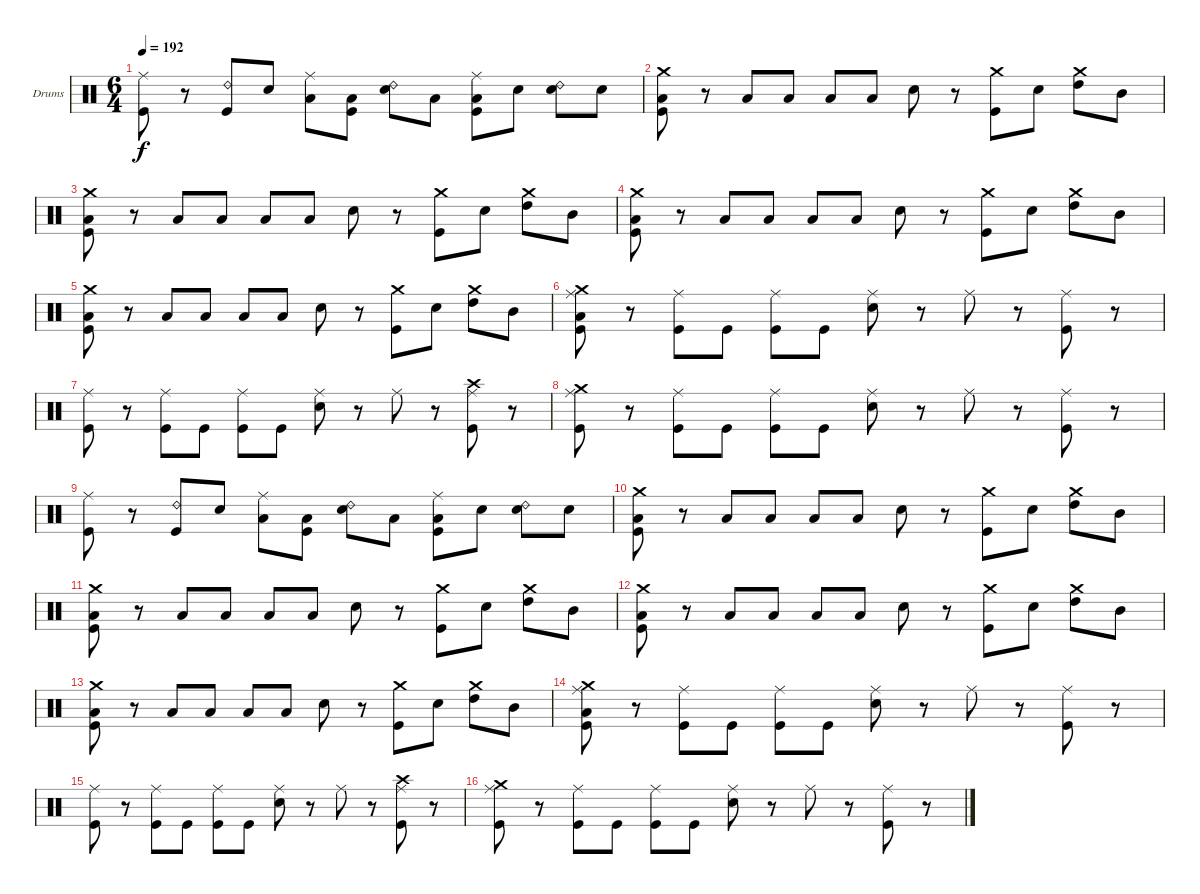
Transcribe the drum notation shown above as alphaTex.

\bracketExtendMode groupsimilarinstruments
\firstSystemTrackNameOrientation horizontal
\otherSystemsTrackNameOrientation horizontal
\track ("Drumkit" "Drums") {instrument percussion}
\staff {score}
\articulation defaults
\ts (6 4)
\tempo 192
\clef neutral
\ks c
("Ride (middle)" "Kick (hit)").8{dy f} r.8 ("Ride (bell) 2" "Kick (hit)").8 "Snare (hit) 2".8 ("Ride (middle)" "Low Tom (hit)").8 ("Low Tom (hit)" "Kick (hit)").8 ("Ride (bell) 2" "Snare (hit) 2").8 "Low Tom (hit)".8 ("Ride (middle)" "Low Tom (hit)" "Kick (hit)").8 "Snare (hit) 2".8 ("Ride (bell) 2" "Snare (hit) 2").8 "Snare (hit) 2".8 |
("Crash medium (hit)" "Low Tom (hit)" "Kick (hit)").8 r.8 "Low Tom (hit)".8 "Low Tom (hit)".8 "Low Tom (hit)".8 "Low Tom (hit)".8 "Snare (hit) 2".8 r.8 ("Crash medium (hit)" "Kick (hit)").8 "Snare (hit) 2".8 ("Crash medium (hit)" "High Tom (hit)").8 "Mid Tom (hit)".8 |
("Crash medium (hit)" "Low Tom (hit)" "Kick (hit)").8 r.8 "Low Tom (hit)".8 "Low Tom (hit)".8 "Low Tom (hit)".8 "Low Tom (hit)".8 "Snare (hit) 2".8 r.8 ("Crash medium (hit)" "Kick (hit)").8 "Snare (hit) 2".8 ("Crash medium (hit)" "High Tom (hit)").8 "Mid Tom (hit)".8 |
("Crash medium (hit)" "Low Tom (hit)" "Kick (hit)").8 r.8 "Low Tom (hit)".8 "Low Tom (hit)".8 "Low Tom (hit)".8 "Low Tom (hit)".8 "Snare (hit) 2".8 r.8 ("Crash medium (hit)" "Kick (hit)").8 "Snare (hit) 2".8 ("Crash medium (hit)" "High Tom (hit)").8 "Mid Tom (hit)".8 |
("Crash medium (hit)" "Low Tom (hit)" "Kick (hit)").8 r.8 "Low Tom (hit)".8 "Low Tom (hit)".8 "Low Tom (hit)".8 "Low Tom (hit)".8 "Snare (hit) 2".8 r.8 ("Crash medium (hit)" "Kick (hit)").8 "Snare (hit) 2".8 ("Crash medium (hit)" "High Tom (hit)").8 "Mid Tom (hit)".8 |
("Crash medium (hit)" "Ride (middle)" "Low Tom (hit)" "Kick (hit)").8 r.8 ("Ride (middle)" "Kick (hit)").8 "Kick (hit)".8 ("Ride (middle)" "Kick (hit)").8 "Kick (hit)".8 ("Ride (middle)" "Snare (hit) 2").8 r.8 "Ride (middle)".8 r.8 ("Ride (middle)" "Kick (hit)").8 r.8 |
("Ride (middle)" "Kick (hit)").8 r.8 ("Ride (middle)" "Kick (hit)").8 "Kick (hit)".8 ("Ride (middle)" "Kick (hit)").8 "Kick (hit)".8 ("Ride (middle)" "Snare (hit) 2").8 r.8 "Ride (middle)".8 r.8 ("Crash high (hit)" "Ride (middle)" "Kick (hit)").8 r.8 |
("Crash medium (hit)" "Ride (middle)" "Kick (hit)").8 r.8 ("Ride (middle)" "Kick (hit)").8 "Kick (hit)".8 ("Ride (middle)" "Kick (hit)").8 "Kick (hit)".8 ("Ride (middle)" "Snare (hit) 2").8 r.8 "Ride (middle)".8 r.8 ("Ride (middle)" "Kick (hit)").8 r.8 |
("Ride (middle)" "Kick (hit)").8 r.8 ("Ride (bell) 2" "Kick (hit)").8 "Snare (hit) 2".8 ("Ride (middle)" "Low Tom (hit)").8 ("Low Tom (hit)" "Kick (hit)").8 ("Ride (bell) 2" "Snare (hit) 2").8 "Low Tom (hit)".8 ("Ride (middle)" "Low Tom (hit)" "Kick (hit)").8 "Snare (hit) 2".8 ("Ride (bell) 2" "Snare (hit) 2").8 "Snare (hit) 2".8 |
("Crash medium (hit)" "Low Tom (hit)" "Kick (hit)").8 r.8 "Low Tom (hit)".8 "Low Tom (hit)".8 "Low Tom (hit)".8 "Low Tom (hit)".8 "Snare (hit) 2".8 r.8 ("Crash medium (hit)" "Kick (hit)").8 "Snare (hit) 2".8 ("Crash medium (hit)" "High Tom (hit)").8 "Mid Tom (hit)".8 |
("Crash medium (hit)" "Low Tom (hit)" "Kick (hit)").8 r.8 "Low Tom (hit)".8 "Low Tom (hit)".8 "Low Tom (hit)".8 "Low Tom (hit)".8 "Snare (hit) 2".8 r.8 ("Crash medium (hit)" "Kick (hit)").8 "Snare (hit) 2".8 ("Crash medium (hit)" "High Tom (hit)").8 "Mid Tom (hit)".8 |
("Crash medium (hit)" "Low Tom (hit)" "Kick (hit)").8 r.8 "Low Tom (hit)".8 "Low Tom (hit)".8 "Low Tom (hit)".8 "Low Tom (hit)".8 "Snare (hit) 2".8 r.8 ("Crash medium (hit)" "Kick (hit)").8 "Snare (hit) 2".8 ("Crash medium (hit)" "High Tom (hit)").8 "Mid Tom (hit)".8 |
("Crash medium (hit)" "Low Tom (hit)" "Kick (hit)").8 r.8 "Low Tom (hit)".8 "Low Tom (hit)".8 "Low Tom (hit)".8 "Low Tom (hit)".8 "Snare (hit) 2".8 r.8 ("Crash medium (hit)" "Kick (hit)").8 "Snare (hit) 2".8 ("Crash medium (hit)" "High Tom (hit)").8 "Mid Tom (hit)".8 |
("Crash medium (hit)" "Ride (middle)" "Low Tom (hit)" "Kick (hit)").8 r.8 ("Ride (middle)" "Kick (hit)").8 "Kick (hit)".8 ("Ride (middle)" "Kick (hit)").8 "Kick (hit)".8 ("Ride (middle)" "Snare (hit) 2").8 r.8 "Ride (middle)".8 r.8 ("Ride (middle)" "Kick (hit)").8 r.8 |
("Ride (middle)" "Kick (hit)").8 r.8 ("Ride (middle)" "Kick (hit)").8 "Kick (hit)".8 ("Ride (middle)" "Kick (hit)").8 "Kick (hit)".8 ("Ride (middle)" "Snare (hit) 2").8 r.8 "Ride (middle)".8 r.8 ("Crash high (hit)" "Ride (middle)" "Kick (hit)").8 r.8 |
("Crash medium (hit)" "Ride (middle)" "Kick (hit)").8 r.8 ("Ride (middle)" "Kick (hit)").8 "Kick (hit)".8 ("Ride (middle)" "Kick (hit)").8 "Kick (hit)".8 ("Ride (middle)" "Snare (hit) 2").8 r.8 "Ride (middle)".8 r.8 ("Ride (middle)" "Kick (hit)").8 r.8
